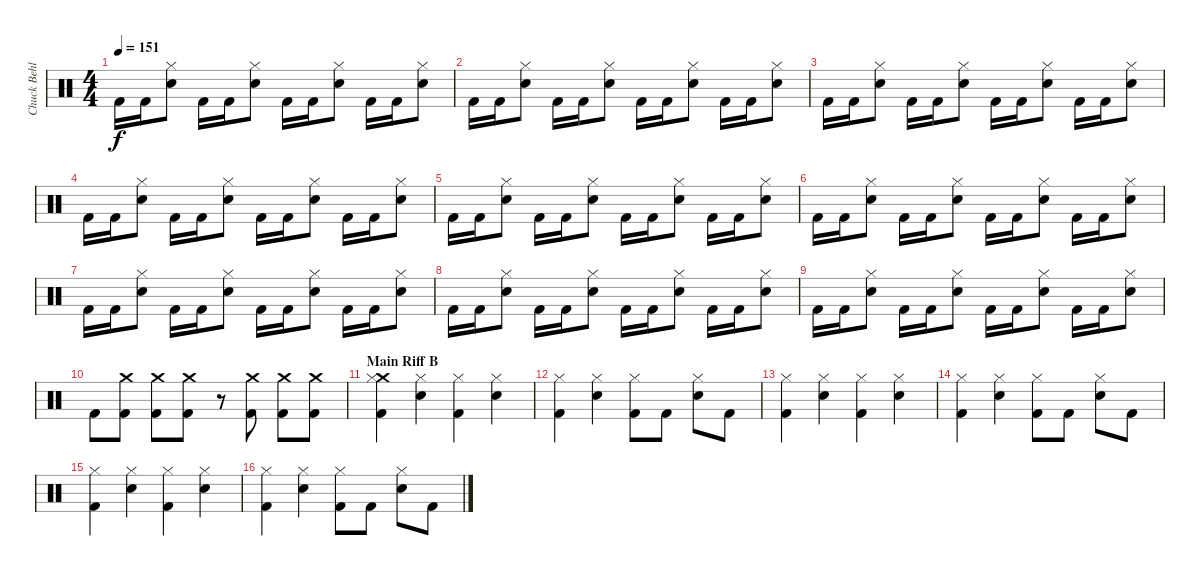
\track ("Chuck Behler" "Chuck Behl") {instrument percussion}
\staff {score}
\articulation defaults
\ts (4 4)
\tempo 151
\clef neutral
\ks c "Kick (hit) 2".16{dy f} "Kick (hit) 2".16
("Hi-Hat (closed)" "Electric Snare (hit)").8 "Kick (hit) 2".16 "Kick (hit) 2".16 ("Hi-Hat (closed)" "Electric Snare (hit)").8 "Kick (hit) 2".16 "Kick (hit) 2".16 ("Hi-Hat (closed)" "Electric Snare (hit)").8 "Kick (hit) 2".16 "Kick (hit) 2".16 ("Hi-Hat (closed)" "Electric Snare (hit)").8 |
"Kick (hit) 2".16 "Kick (hit) 2".16 ("Hi-Hat (closed)" "Electric Snare (hit)").8 "Kick (hit) 2".16 "Kick (hit) 2".16 ("Hi-Hat (closed)" "Electric Snare (hit)").8 "Kick (hit) 2".16 "Kick (hit) 2".16 ("Hi-Hat (closed)" "Electric Snare (hit)").8 "Kick (hit) 2".16 "Kick (hit) 2".16 ("Hi-Hat (closed)" "Electric Snare (hit)").8 |
"Kick (hit) 2".16 "Kick (hit) 2".16 ("Hi-Hat (closed)" "Electric Snare (hit)").8 "Kick (hit) 2".16 "Kick (hit) 2".16 ("Hi-Hat (closed)" "Electric Snare (hit)").8 "Kick (hit) 2".16 "Kick (hit) 2".16 ("Hi-Hat (closed)" "Electric Snare (hit)").8 "Kick (hit) 2".16 "Kick (hit) 2".16 ("Hi-Hat (closed)" "Electric Snare (hit)").8 |
"Kick (hit) 2".16 "Kick (hit) 2".16 ("Hi-Hat (closed)" "Electric Snare (hit)").8 "Kick (hit) 2".16 "Kick (hit) 2".16 ("Hi-Hat (closed)" "Electric Snare (hit)").8 "Kick (hit) 2".16 "Kick (hit) 2".16 ("Hi-Hat (closed)" "Electric Snare (hit)").8 "Kick (hit) 2".16 "Kick (hit) 2".16 ("Hi-Hat (closed)" "Electric Snare (hit)").8 |
"Kick (hit) 2".16 "Kick (hit) 2".16 ("Hi-Hat (closed)" "Electric Snare (hit)").8 "Kick (hit) 2".16 "Kick (hit) 2".16 ("Hi-Hat (closed)" "Electric Snare (hit)").8 "Kick (hit) 2".16 "Kick (hit) 2".16 ("Hi-Hat (closed)" "Electric Snare (hit)").8 "Kick (hit) 2".16 "Kick (hit) 2".16 ("Hi-Hat (closed)" "Electric Snare (hit)").8 |
"Kick (hit) 2".16 "Kick (hit) 2".16 ("Hi-Hat (closed)" "Electric Snare (hit)").8 "Kick (hit) 2".16 "Kick (hit) 2".16 ("Hi-Hat (closed)" "Electric Snare (hit)").8 "Kick (hit) 2".16 "Kick (hit) 2".16 ("Hi-Hat (closed)" "Electric Snare (hit)").8 "Kick (hit) 2".16 "Kick (hit) 2".16 ("Hi-Hat (closed)" "Electric Snare (hit)").8 |
"Kick (hit) 2".16 "Kick (hit) 2".16 ("Hi-Hat (closed)" "Electric Snare (hit)").8 "Kick (hit) 2".16 "Kick (hit) 2".16 ("Hi-Hat (closed)" "Electric Snare (hit)").8 "Kick (hit) 2".16 "Kick (hit) 2".16 ("Hi-Hat (closed)" "Electric Snare (hit)").8 "Kick (hit) 2".16 "Kick (hit) 2".16 ("Hi-Hat (closed)" "Electric Snare (hit)").8 |
"Kick (hit) 2".16 "Kick (hit) 2".16 ("Hi-Hat (closed)" "Electric Snare (hit)").8 "Kick (hit) 2".16 "Kick (hit) 2".16 ("Hi-Hat (closed)" "Electric Snare (hit)").8 "Kick (hit) 2".16 "Kick (hit) 2".16 ("Hi-Hat (closed)" "Electric Snare (hit)").8 "Kick (hit) 2".16 "Kick (hit) 2".16 ("Hi-Hat (closed)" "Electric Snare (hit)").8 |
"Kick (hit) 2".16 "Kick (hit) 2".16 ("Hi-Hat (closed)" "Electric Snare (hit)").8 "Kick (hit) 2".16 "Kick (hit) 2".16 ("Hi-Hat (closed)" "Electric Snare (hit)").8 "Kick (hit) 2".16 "Kick (hit) 2".16 ("Hi-Hat (closed)" "Electric Snare (hit)").8 "Kick (hit) 2".16 "Kick (hit) 2".16 ("Hi-Hat (closed)" "Electric Snare (hit)").8 |
"Kick (hit) 2".8 ("Crash medium (hit)" "Kick (hit) 2").8 ("Crash medium (hit)" "Kick (hit) 2").8 ("Crash medium (hit)" "Kick (hit) 2").8 r.8 ("Crash medium (hit)" "Kick (hit) 2").8 ("Crash medium (hit)" "Kick (hit) 2").8 ("Crash medium (hit)" "Kick (hit) 2").8 |
\section ("" "Main Riff B")
("Crash medium (hit)" "Hi-Hat (closed)" "Kick (hit) 2").4 ("Hi-Hat (closed)" "Electric Snare (hit)").4 ("Hi-Hat (closed)" "Kick (hit) 2").4 ("Hi-Hat (closed)" "Electric Snare (hit)").4 |
("Hi-Hat (closed)" "Kick (hit) 2").4 ("Hi-Hat (closed)" "Electric Snare (hit)").4 ("Hi-Hat (closed)" "Kick (hit) 2").8 "Kick (hit) 2".8 ("Hi-Hat (closed)" "Electric Snare (hit)").8 "Kick (hit) 2".8 |
("Hi-Hat (closed)" "Kick (hit) 2").4 ("Hi-Hat (closed)" "Electric Snare (hit)").4 ("Hi-Hat (closed)" "Kick (hit) 2").4 ("Hi-Hat (closed)" "Electric Snare (hit)").4 |
("Hi-Hat (closed)" "Kick (hit) 2").4 ("Hi-Hat (closed)" "Electric Snare (hit)").4 ("Hi-Hat (closed)" "Kick (hit) 2").8 "Kick (hit) 2".8 ("Hi-Hat (closed)" "Electric Snare (hit)").8 "Kick (hit) 2".8 |
("Hi-Hat (closed)" "Kick (hit) 2").4 ("Hi-Hat (closed)" "Electric Snare (hit)").4 ("Hi-Hat (closed)" "Kick (hit) 2").4 ("Hi-Hat (closed)" "Electric Snare (hit)").4 |
("Hi-Hat (closed)" "Kick (hit) 2").4 ("Hi-Hat (closed)" "Electric Snare (hit)").4 ("Hi-Hat (closed)" "Kick (hit) 2").8 "Kick (hit) 2".8 ("Hi-Hat (closed)" "Electric Snare (hit)").8 "Kick (hit) 2".8
